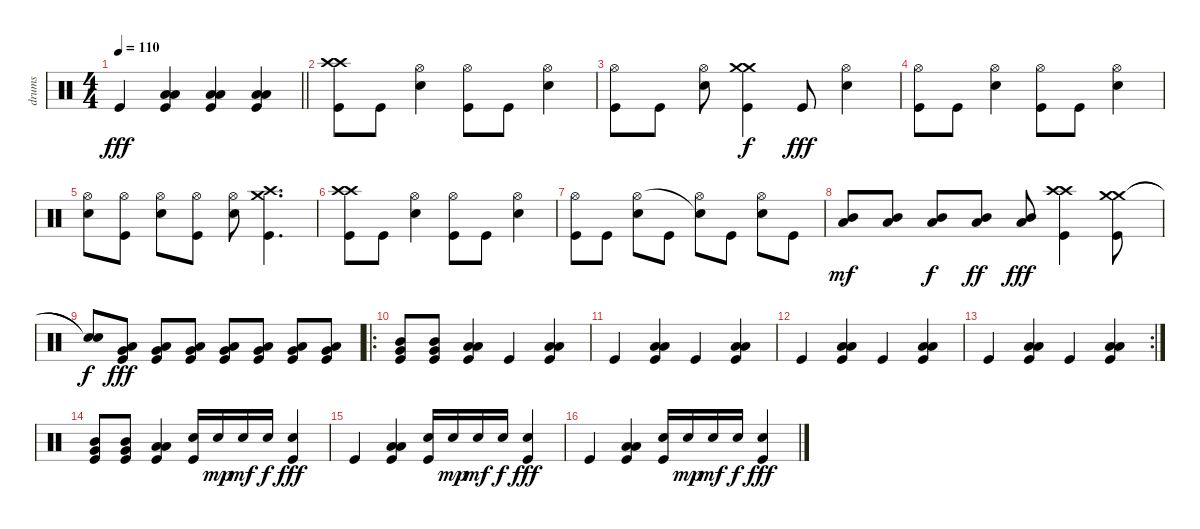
\track ("drums" "drums") {instrument percussion}
\staff {score}
\articulation defaults
\ts (4 4)
\tempo 110
\clef neutral
\barLineRight lightlight
\ks c "Kick (hit)".4{dy fff}
("Low Tom (hit)" "Low Floor Tom (hit)" "Kick (hit)").4 ("Low Tom (hit)" "Low Floor Tom (hit)" "Kick (hit)").4 ("Low Tom (hit)" "Low Floor Tom (hit)" "Kick (hit)").4 |
("Crash high (hit)" "Crash high (hit)" "Kick (hit)").8 "Kick (hit)".8 ("Electric Snare (hit)" "Hi-Hat (open)").4 ("Hi-Hat (open)" "Kick (hit)").8 "Kick (hit)".8 ("Electric Snare (hit)" "Hi-Hat (open)").4 |
("Hi-Hat (open)" "Kick (hit)").8 "Kick (hit)".8 ("Electric Snare (hit)" "Hi-Hat (open)").8 ("Crash medium (hit)" "Crash medium (hit)" "Kick (hit)").4{dy f} "Kick (hit)".8{dy fff} ("Electric Snare (hit)" "Hi-Hat (open)").4 |
("Hi-Hat (open)" "Kick (hit)").8 "Kick (hit)".8 ("Electric Snare (hit)" "Hi-Hat (open)").4 ("Hi-Hat (open)" "Kick (hit)").8 "Kick (hit)".8 ("Electric Snare (hit)" "Hi-Hat (open)").4 |
("Electric Snare (hit)" "Hi-Hat (open)").8 ("Hi-Hat (open)" "Kick (hit)").8 ("Electric Snare (hit)" "Hi-Hat (open)").8 ("Hi-Hat (open)" "Kick (hit)").8 ("Electric Snare (hit)" "Hi-Hat (open)").8 ("Crash high (hit)" "Crash medium (hit)" "Kick (hit)").4{d} |
("Crash high (hit)" "Crash high (hit)" "Kick (hit)").8 "Kick (hit)".8 ("Electric Snare (hit)" "Hi-Hat (open)").4 ("Hi-Hat (open)" "Kick (hit)").8 "Kick (hit)".8 ("Electric Snare (hit)" "Hi-Hat (open)").4 |
("Hi-Hat (open)" "Kick (hit)").8 "Kick (hit)".8 ("Electric Snare (hit)" "Hi-Hat (open)").8 "Kick (hit)".8 ("Hi-Hat (open)" "Snare (hit)"{t}).8 "Kick (hit)".8 ("Electric Snare (hit)" "Hi-Hat (open)").8 "Kick (hit)".8 |
("Mid Tom (hit)" "Low Tom (hit)").8{dy mf} ("Mid Tom (hit)" "Low Tom (hit)").8 ("Mid Tom (hit)" "Low Tom (hit)").8{dy f} ("Mid Tom (hit)" "Low Tom (hit)").8{dy ff} ("Mid Tom (hit)" "Low Tom (hit)").8{dy fff} ("Crash high (hit)" "Crash high (hit)" "Kick (hit)").4 ("Crash medium (hit)" "Crash medium (hit)" "Kick (hit)").8 |
("Snare (hit)"{t} "Snare (hit)"{t}).8{dy f} ("Low Tom (hit)" "Very Low Tom (hit)" "Kick (hit)").8{dy fff} ("Low Tom (hit)" "Very Low Tom (hit)" "Kick (hit)").8 ("Low Tom (hit)" "Very Low Tom (hit)" "Kick (hit)").8 ("Low Tom (hit)" "Very Low Tom (hit)" "Kick (hit)").8 ("Low Tom (hit)" "Very Low Tom (hit)" "Kick (hit)").8 ("Low Tom (hit)" "Very Low Tom (hit)" "Kick (hit)").8 ("Low Tom (hit)" "Very Low Tom (hit)" "Kick (hit)").8 |
\ro
("Mid Tom (hit)" "Very Low Tom (hit)" "Kick (hit)").8 ("Mid Tom (hit)" "Very Low Tom (hit)" "Kick (hit)").8 ("Low Tom (hit)" "Low Floor Tom (hit)" "Kick (hit)").4 "Kick (hit)".4 ("Low Tom (hit)" "Low Floor Tom (hit)" "Kick (hit)").4 |
"Kick (hit)".4 ("Low Tom (hit)" "Low Floor Tom (hit)" "Kick (hit)").4 "Kick (hit)".4 ("Low Tom (hit)" "Low Floor Tom (hit)" "Kick (hit)").4 |
"Kick (hit)".4 ("Low Tom (hit)" "Low Floor Tom (hit)" "Kick (hit)").4 "Kick (hit)".4 ("Low Tom (hit)" "Low Floor Tom (hit)" "Kick (hit)").4 |
\rc 2 "Kick (hit)".4
("Low Tom (hit)" "Low Floor Tom (hit)" "Kick (hit)").4 "Kick (hit)".4 ("Low Tom (hit)" "Low Floor Tom (hit)" "Kick (hit)").4 |
("Mid Tom (hit)" "Very Low Tom (hit)" "Kick (hit)").8 ("Mid Tom (hit)" "Very Low Tom (hit)" "Kick (hit)").8 ("Low Tom (hit)" "Low Floor Tom (hit)" "Kick (hit)").4 ("Electric Snare (hit)" "Kick (hit)").16 "Electric Snare (hit)".16{dy mp} "Electric Snare (hit)".16{dy mf} "Electric Snare (hit)".16{dy f} ("Electric Snare (hit)" "Kick (hit)").4{dy fff} |
"Kick (hit)".4 ("Low Tom (hit)" "Low Floor Tom (hit)" "Kick (hit)").4 ("Electric Snare (hit)" "Kick (hit)").16 "Electric Snare (hit)".16{dy mp} "Electric Snare (hit)".16{dy mf} "Electric Snare (hit)".16{dy f} ("Electric Snare (hit)" "Kick (hit)").4{dy fff} |
"Kick (hit)".4 ("Low Tom (hit)" "Low Floor Tom (hit)" "Kick (hit)").4 ("Electric Snare (hit)" "Kick (hit)").16 "Electric Snare (hit)".16{dy mp} "Electric Snare (hit)".16{dy mf} "Electric Snare (hit)".16{dy f} ("Electric Snare (hit)" "Kick (hit)").4{dy fff}
